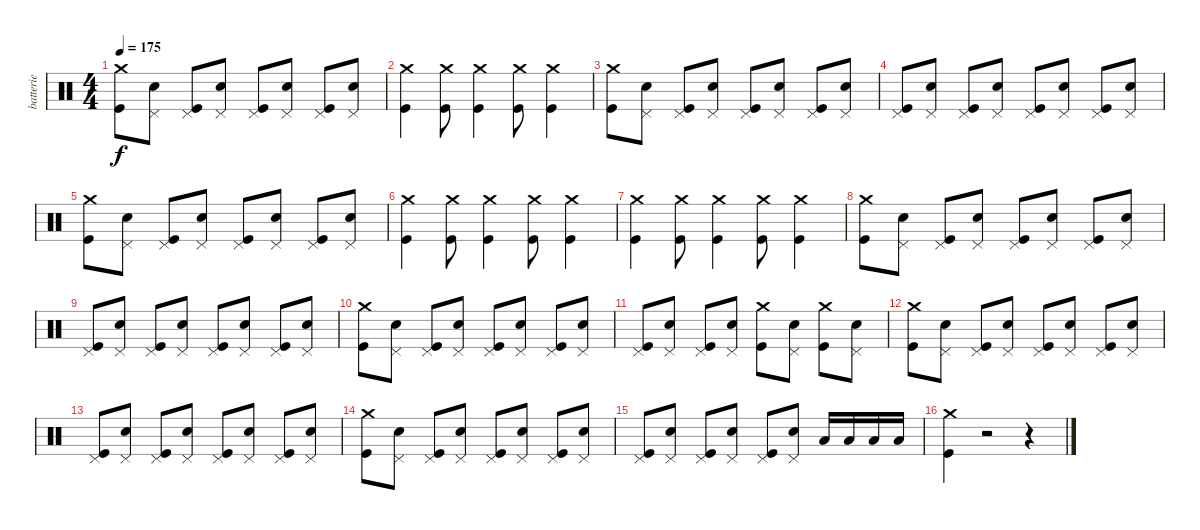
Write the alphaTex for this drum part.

\track ("batterie" "batterie") {instrument percussion}
\staff {score}
\articulation defaults
\ts (4 4)
\tempo 175
\clef neutral
\ks c
("Crash medium (hit)" "Kick (hit)").8{dy f} ("Pedal Hi-Hat (hit)" "Snare (hit) 2").8 ("Pedal Hi-Hat (hit)" "Kick (hit)").8 ("Pedal Hi-Hat (hit)" "Snare (hit) 2").8 ("Pedal Hi-Hat (hit)" "Kick (hit)").8 ("Pedal Hi-Hat (hit)" "Snare (hit) 2").8 ("Pedal Hi-Hat (hit)" "Kick (hit)").8 ("Pedal Hi-Hat (hit)" "Snare (hit) 2").8 |
("Crash medium (hit)" "Kick (hit)").4 ("Crash medium (hit)" "Kick (hit)").8 ("Crash medium (hit)" "Kick (hit)").4 ("Crash medium (hit)" "Kick (hit)").8 ("Crash medium (hit)" "Kick (hit)").4 |
("Crash medium (hit)" "Kick (hit)").8 ("Pedal Hi-Hat (hit)" "Snare (hit) 2").8 ("Pedal Hi-Hat (hit)" "Kick (hit)").8 ("Pedal Hi-Hat (hit)" "Snare (hit) 2").8 ("Pedal Hi-Hat (hit)" "Kick (hit)").8 ("Pedal Hi-Hat (hit)" "Snare (hit) 2").8 ("Pedal Hi-Hat (hit)" "Kick (hit)").8 ("Pedal Hi-Hat (hit)" "Snare (hit) 2").8 |
("Pedal Hi-Hat (hit)" "Kick (hit)").8 ("Pedal Hi-Hat (hit)" "Snare (hit) 2").8 ("Pedal Hi-Hat (hit)" "Kick (hit)").8 ("Pedal Hi-Hat (hit)" "Snare (hit) 2").8 ("Pedal Hi-Hat (hit)" "Kick (hit)").8 ("Pedal Hi-Hat (hit)" "Snare (hit) 2").8 ("Pedal Hi-Hat (hit)" "Kick (hit)").8 ("Pedal Hi-Hat (hit)" "Snare (hit) 2").8 |
("Crash medium (hit)" "Kick (hit)").8 ("Pedal Hi-Hat (hit)" "Snare (hit) 2").8 ("Pedal Hi-Hat (hit)" "Kick (hit)").8 ("Pedal Hi-Hat (hit)" "Snare (hit) 2").8 ("Pedal Hi-Hat (hit)" "Kick (hit)").8 ("Pedal Hi-Hat (hit)" "Snare (hit) 2").8 ("Pedal Hi-Hat (hit)" "Kick (hit)").8 ("Pedal Hi-Hat (hit)" "Snare (hit) 2").8 |
("Crash medium (hit)" "Kick (hit)").4 ("Crash medium (hit)" "Kick (hit)").8 ("Crash medium (hit)" "Kick (hit)").4 ("Crash medium (hit)" "Kick (hit)").8 ("Crash medium (hit)" "Kick (hit)").4 |
("Crash medium (hit)" "Kick (hit)").4 ("Crash medium (hit)" "Kick (hit)").8 ("Crash medium (hit)" "Kick (hit)").4 ("Crash medium (hit)" "Kick (hit)").8 ("Crash medium (hit)" "Kick (hit)").4 |
("Crash medium (hit)" "Kick (hit)").8 ("Pedal Hi-Hat (hit)" "Snare (hit) 2").8 ("Pedal Hi-Hat (hit)" "Kick (hit)").8 ("Pedal Hi-Hat (hit)" "Snare (hit) 2").8 ("Pedal Hi-Hat (hit)" "Kick (hit)").8 ("Pedal Hi-Hat (hit)" "Snare (hit) 2").8 ("Pedal Hi-Hat (hit)" "Kick (hit)").8 ("Pedal Hi-Hat (hit)" "Snare (hit) 2").8 |
("Pedal Hi-Hat (hit)" "Kick (hit)").8 ("Pedal Hi-Hat (hit)" "Snare (hit) 2").8 ("Pedal Hi-Hat (hit)" "Kick (hit)").8 ("Pedal Hi-Hat (hit)" "Snare (hit) 2").8 ("Pedal Hi-Hat (hit)" "Kick (hit)").8 ("Pedal Hi-Hat (hit)" "Snare (hit) 2").8 ("Pedal Hi-Hat (hit)" "Kick (hit)").8 ("Pedal Hi-Hat (hit)" "Snare (hit) 2").8 |
("Crash medium (hit)" "Kick (hit)").8 ("Pedal Hi-Hat (hit)" "Snare (hit) 2").8 ("Pedal Hi-Hat (hit)" "Kick (hit)").8 ("Pedal Hi-Hat (hit)" "Snare (hit) 2").8 ("Pedal Hi-Hat (hit)" "Kick (hit)").8 ("Pedal Hi-Hat (hit)" "Snare (hit) 2").8 ("Pedal Hi-Hat (hit)" "Kick (hit)").8 ("Pedal Hi-Hat (hit)" "Snare (hit) 2").8 |
("Pedal Hi-Hat (hit)" "Kick (hit)").8 ("Pedal Hi-Hat (hit)" "Snare (hit) 2").8 ("Pedal Hi-Hat (hit)" "Kick (hit)").8 ("Pedal Hi-Hat (hit)" "Snare (hit) 2").8 ("Crash medium (hit)" "Kick (hit)").8 ("Pedal Hi-Hat (hit)" "Snare (hit) 2").8 ("Crash medium (hit)" "Kick (hit)").8 ("Pedal Hi-Hat (hit)" "Snare (hit) 2").8 |
("Crash medium (hit)" "Kick (hit)").8 ("Pedal Hi-Hat (hit)" "Snare (hit) 2").8 ("Pedal Hi-Hat (hit)" "Kick (hit)").8 ("Pedal Hi-Hat (hit)" "Snare (hit) 2").8 ("Pedal Hi-Hat (hit)" "Kick (hit)").8 ("Pedal Hi-Hat (hit)" "Snare (hit) 2").8 ("Pedal Hi-Hat (hit)" "Kick (hit)").8 ("Pedal Hi-Hat (hit)" "Snare (hit) 2").8 |
("Pedal Hi-Hat (hit)" "Kick (hit)").8 ("Pedal Hi-Hat (hit)" "Snare (hit) 2").8 ("Pedal Hi-Hat (hit)" "Kick (hit)").8 ("Pedal Hi-Hat (hit)" "Snare (hit) 2").8 ("Pedal Hi-Hat (hit)" "Kick (hit)").8 ("Pedal Hi-Hat (hit)" "Snare (hit) 2").8 ("Pedal Hi-Hat (hit)" "Kick (hit)").8 ("Pedal Hi-Hat (hit)" "Snare (hit) 2").8 |
("Crash medium (hit)" "Kick (hit)").8 ("Pedal Hi-Hat (hit)" "Snare (hit) 2").8 ("Pedal Hi-Hat (hit)" "Kick (hit)").8 ("Pedal Hi-Hat (hit)" "Snare (hit) 2").8 ("Pedal Hi-Hat (hit)" "Kick (hit)").8 ("Pedal Hi-Hat (hit)" "Snare (hit) 2").8 ("Pedal Hi-Hat (hit)" "Kick (hit)").8 ("Pedal Hi-Hat (hit)" "Snare (hit) 2").8 |
("Pedal Hi-Hat (hit)" "Kick (hit)").8 ("Pedal Hi-Hat (hit)" "Snare (hit) 2").8 ("Pedal Hi-Hat (hit)" "Kick (hit)").8 ("Pedal Hi-Hat (hit)" "Snare (hit) 2").8 ("Pedal Hi-Hat (hit)" "Kick (hit)").8 ("Pedal Hi-Hat (hit)" "Snare (hit) 2").8 "Low Tom (hit)".16 "Low Tom (hit)".16 "Low Tom (hit)".16 "Low Tom (hit)".16 |
("Crash medium (hit)" "Kick (hit)").4 r.2 r.4
